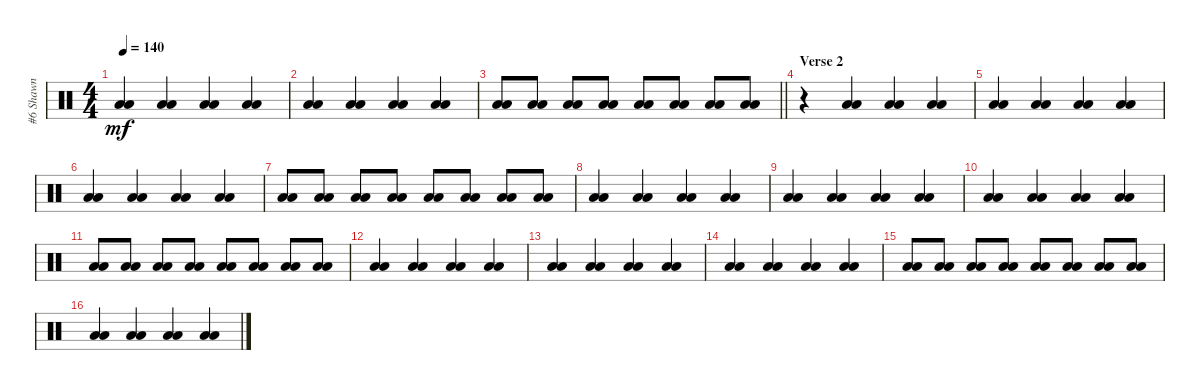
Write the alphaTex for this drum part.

\track ("#6 Shawn" "#6 Shawn") {solo instrument percussion}
\staff {score}
\articulation defaults
\ts (4 4)
\tempo 140
\clef neutral
\ks c
("Low Floor Tom (hit)" "Low Floor Tom (hit)").4{dy mf} ("Low Tom (hit)" "Low Tom (hit)").4 ("Low Floor Tom (hit)" "Low Floor Tom (hit)").4 ("Low Tom (hit)" "Low Tom (hit)").4 |
("Low Floor Tom (hit)" "Low Floor Tom (hit)").4 ("Low Tom (hit)" "Low Tom (hit)").4 ("Low Floor Tom (hit)" "Low Floor Tom (hit)").4 ("Low Tom (hit)" "Low Tom (hit)").4 |
\barLineRight lightlight
("Low Tom (hit)" "Low Floor Tom (hit)").8 ("Low Tom (hit)" "Low Floor Tom (hit)").8 ("Low Tom (hit)" "Low Floor Tom (hit)").8 ("Low Tom (hit)" "Low Floor Tom (hit)").8 ("Low Tom (hit)" "Low Floor Tom (hit)").8 ("Low Tom (hit)" "Low Floor Tom (hit)").8 ("Low Tom (hit)" "Low Floor Tom (hit)").8 ("Low Tom (hit)" "Low Floor Tom (hit)").8 |
\section ("" "Verse 2")
r.4 ("Low Tom (hit)" "Low Tom (hit)").4 ("Low Floor Tom (hit)" "Low Floor Tom (hit)").4 ("Low Tom (hit)" "Low Tom (hit)").4 |
("Low Floor Tom (hit)" "Low Floor Tom (hit)").4 ("Low Tom (hit)" "Low Tom (hit)").4 ("Low Floor Tom (hit)" "Low Floor Tom (hit)").4 ("Low Tom (hit)" "Low Tom (hit)").4 |
("Low Floor Tom (hit)" "Low Floor Tom (hit)").4 ("Low Tom (hit)" "Low Tom (hit)").4 ("Low Floor Tom (hit)" "Low Floor Tom (hit)").4 ("Low Tom (hit)" "Low Tom (hit)").4 |
("Low Tom (hit)" "Low Floor Tom (hit)").8 ("Low Tom (hit)" "Low Floor Tom (hit)").8 ("Low Tom (hit)" "Low Floor Tom (hit)").8 ("Low Tom (hit)" "Low Floor Tom (hit)").8 ("Low Tom (hit)" "Low Floor Tom (hit)").8 ("Low Tom (hit)" "Low Floor Tom (hit)").8 ("Low Tom (hit)" "Low Floor Tom (hit)").8 ("Low Tom (hit)" "Low Floor Tom (hit)").8 |
("Low Floor Tom (hit)" "Low Floor Tom (hit)").4 ("Low Tom (hit)" "Low Tom (hit)").4 ("Low Floor Tom (hit)" "Low Floor Tom (hit)").4 ("Low Tom (hit)" "Low Tom (hit)").4 |
("Low Floor Tom (hit)" "Low Floor Tom (hit)").4 ("Low Tom (hit)" "Low Tom (hit)").4 ("Low Floor Tom (hit)" "Low Floor Tom (hit)").4 ("Low Tom (hit)" "Low Tom (hit)").4 |
("Low Floor Tom (hit)" "Low Floor Tom (hit)").4 ("Low Tom (hit)" "Low Tom (hit)").4 ("Low Floor Tom (hit)" "Low Floor Tom (hit)").4 ("Low Tom (hit)" "Low Tom (hit)").4 |
("Low Tom (hit)" "Low Floor Tom (hit)").8 ("Low Tom (hit)" "Low Floor Tom (hit)").8 ("Low Tom (hit)" "Low Floor Tom (hit)").8 ("Low Tom (hit)" "Low Floor Tom (hit)").8 ("Low Tom (hit)" "Low Floor Tom (hit)").8 ("Low Tom (hit)" "Low Floor Tom (hit)").8 ("Low Tom (hit)" "Low Floor Tom (hit)").8 ("Low Tom (hit)" "Low Floor Tom (hit)").8 |
("Low Floor Tom (hit)" "Low Floor Tom (hit)").4 ("Low Tom (hit)" "Low Tom (hit)").4 ("Low Floor Tom (hit)" "Low Floor Tom (hit)").4 ("Low Tom (hit)" "Low Tom (hit)").4 |
("Low Floor Tom (hit)" "Low Floor Tom (hit)").4 ("Low Tom (hit)" "Low Tom (hit)").4 ("Low Floor Tom (hit)" "Low Floor Tom (hit)").4 ("Low Tom (hit)" "Low Tom (hit)").4 |
("Low Floor Tom (hit)" "Low Floor Tom (hit)").4 ("Low Tom (hit)" "Low Tom (hit)").4 ("Low Floor Tom (hit)" "Low Floor Tom (hit)").4 ("Low Tom (hit)" "Low Tom (hit)").4 |
("Low Tom (hit)" "Low Floor Tom (hit)").8 ("Low Tom (hit)" "Low Floor Tom (hit)").8 ("Low Tom (hit)" "Low Floor Tom (hit)").8 ("Low Tom (hit)" "Low Floor Tom (hit)").8 ("Low Tom (hit)" "Low Floor Tom (hit)").8 ("Low Tom (hit)" "Low Floor Tom (hit)").8 ("Low Tom (hit)" "Low Floor Tom (hit)").8 ("Low Tom (hit)" "Low Floor Tom (hit)").8 |
("Low Floor Tom (hit)" "Low Floor Tom (hit)").4 ("Low Tom (hit)" "Low Tom (hit)").4 ("Low Floor Tom (hit)" "Low Floor Tom (hit)").4 ("Low Tom (hit)" "Low Tom (hit)").4
